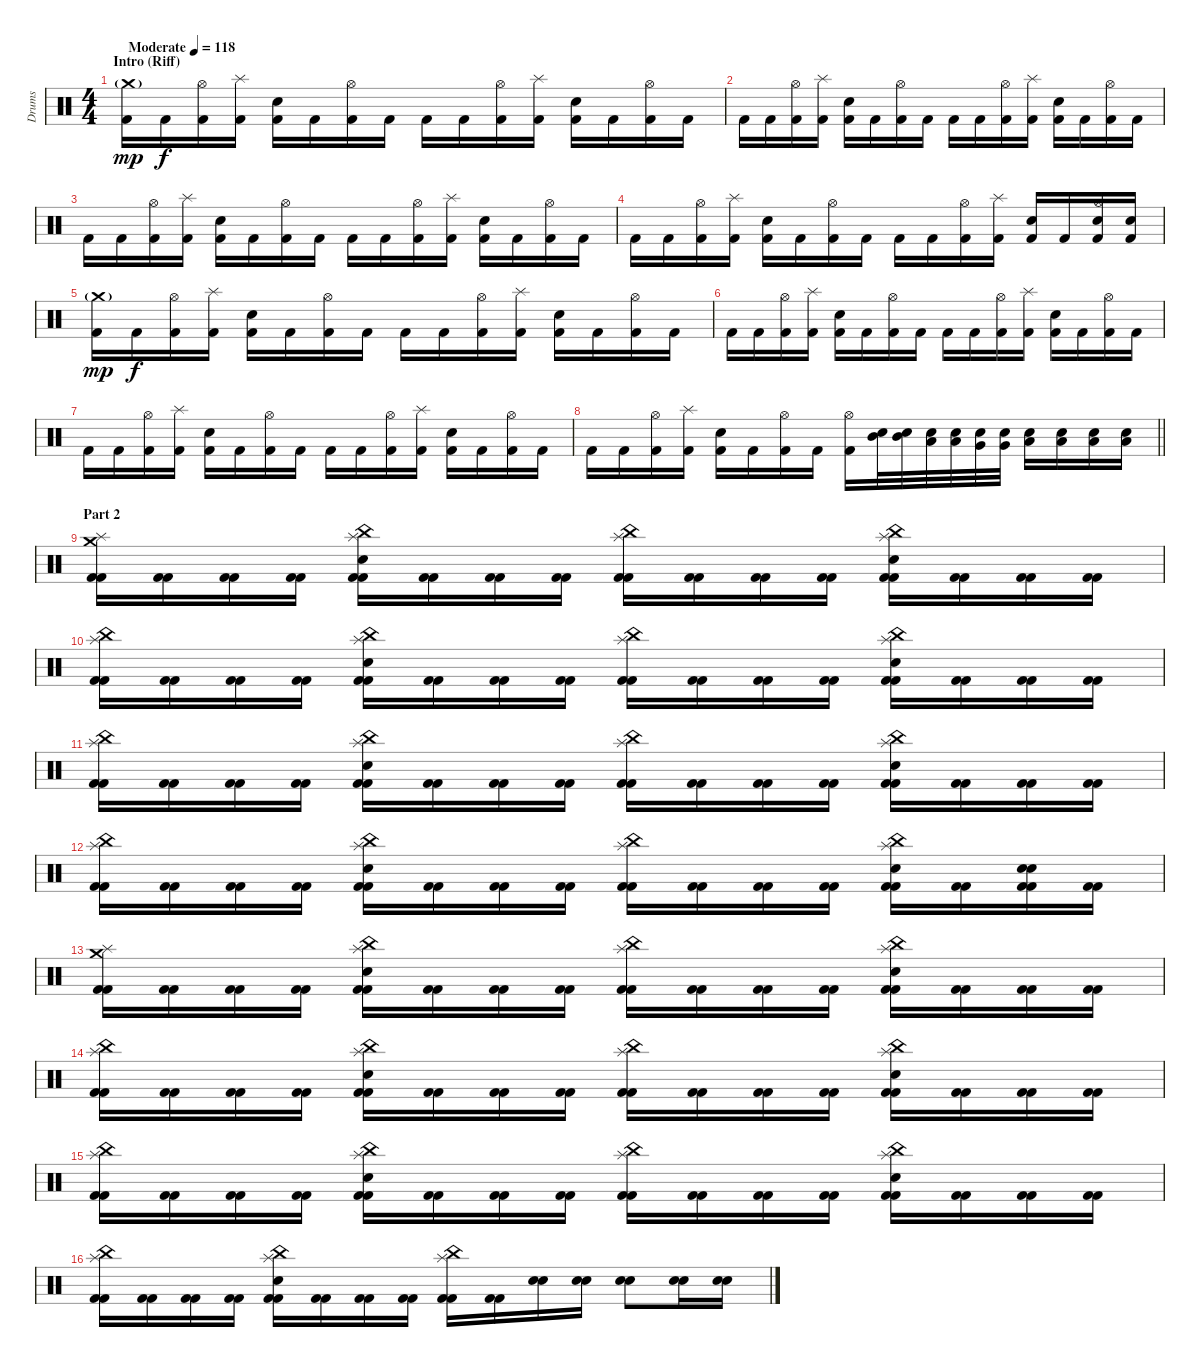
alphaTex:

\track ("Drums" "Drums") {instrument percussion}
\staff {score}
\articulation defaults
\ts (4 4)
\section ("" "Intro (Riff)")
\tempo (118 "Moderate")
\clef neutral
\ks c
("Crash medium (hit)"{g} "Kick (hit) 2").16{dy mp} "Kick (hit) 2".16{dy f} ("Hi-Hat (open)" "Kick (hit) 2").16 ("Splash (hit)" "Kick (hit) 2").16 ("Electric Snare (hit)" "Kick (hit) 2").16 "Kick (hit) 2".16 ("Hi-Hat (open)" "Kick (hit) 2").16 "Kick (hit) 2".16 "Kick (hit) 2".16 "Kick (hit) 2".16 ("Hi-Hat (open)" "Kick (hit) 2").16 ("Splash (hit)" "Kick (hit) 2").16 ("Electric Snare (hit)" "Kick (hit) 2").16 "Kick (hit) 2".16 ("Hi-Hat (open)" "Kick (hit) 2").16 "Kick (hit) 2".16 |
"Kick (hit) 2".16 "Kick (hit) 2".16 ("Hi-Hat (open)" "Kick (hit) 2").16 ("Splash (hit)" "Kick (hit) 2").16 ("Electric Snare (hit)" "Kick (hit) 2").16 "Kick (hit) 2".16 ("Hi-Hat (open)" "Kick (hit) 2").16 "Kick (hit) 2".16 "Kick (hit) 2".16 "Kick (hit) 2".16 ("Hi-Hat (open)" "Kick (hit) 2").16 ("Splash (hit)" "Kick (hit) 2").16 ("Electric Snare (hit)" "Kick (hit) 2").16 "Kick (hit) 2".16 ("Hi-Hat (open)" "Kick (hit) 2").16 "Kick (hit) 2".16 |
"Kick (hit) 2".16 "Kick (hit) 2".16 ("Hi-Hat (open)" "Kick (hit) 2").16 ("Splash (hit)" "Kick (hit) 2").16 ("Electric Snare (hit)" "Kick (hit) 2").16 "Kick (hit) 2".16 ("Hi-Hat (open)" "Kick (hit) 2").16 "Kick (hit) 2".16 "Kick (hit) 2".16 "Kick (hit) 2".16 ("Hi-Hat (open)" "Kick (hit) 2").16 ("Splash (hit)" "Kick (hit) 2").16 ("Electric Snare (hit)" "Kick (hit) 2").16 "Kick (hit) 2".16 ("Hi-Hat (open)" "Kick (hit) 2").16 "Kick (hit) 2".16 |
"Kick (hit) 2".16 "Kick (hit) 2".16 ("Hi-Hat (open)" "Kick (hit) 2").16 ("Splash (hit)" "Kick (hit) 2").16 ("Electric Snare (hit)" "Kick (hit) 2").16 "Kick (hit) 2".16 ("Hi-Hat (open)" "Kick (hit) 2").16 "Kick (hit) 2".16 "Kick (hit) 2".16 "Kick (hit) 2".16 ("Hi-Hat (open)" "Kick (hit) 2").16 ("Splash (hit)" "Kick (hit) 2").16 ("Electric Snare (hit)" "Kick (hit) 2").16 "Kick (hit) 2".16 ("Hi-Hat (open)" "Electric Snare (hit)" "Kick (hit) 2").16 ("Electric Snare (hit)" "Kick (hit) 2").16 |
("Crash medium (hit)"{g} "Kick (hit) 2").16{dy mp} "Kick (hit) 2".16{dy f} ("Hi-Hat (open)" "Kick (hit) 2").16 ("Splash (hit)" "Kick (hit) 2").16 ("Electric Snare (hit)" "Kick (hit) 2").16 "Kick (hit) 2".16 ("Hi-Hat (open)" "Kick (hit) 2").16 "Kick (hit) 2".16 "Kick (hit) 2".16 "Kick (hit) 2".16 ("Hi-Hat (open)" "Kick (hit) 2").16 ("Splash (hit)" "Kick (hit) 2").16 ("Electric Snare (hit)" "Kick (hit) 2").16 "Kick (hit) 2".16 ("Hi-Hat (open)" "Kick (hit) 2").16 "Kick (hit) 2".16 |
"Kick (hit) 2".16 "Kick (hit) 2".16 ("Hi-Hat (open)" "Kick (hit) 2").16 ("Splash (hit)" "Kick (hit) 2").16 ("Electric Snare (hit)" "Kick (hit) 2").16 "Kick (hit) 2".16 ("Hi-Hat (open)" "Kick (hit) 2").16 "Kick (hit) 2".16 "Kick (hit) 2".16 "Kick (hit) 2".16 ("Hi-Hat (open)" "Kick (hit) 2").16 ("Splash (hit)" "Kick (hit) 2").16 ("Electric Snare (hit)" "Kick (hit) 2").16 "Kick (hit) 2".16 ("Hi-Hat (open)" "Kick (hit) 2").16 "Kick (hit) 2".16 |
"Kick (hit) 2".16 "Kick (hit) 2".16 ("Hi-Hat (open)" "Kick (hit) 2").16 ("Splash (hit)" "Kick (hit) 2").16 ("Electric Snare (hit)" "Kick (hit) 2").16 "Kick (hit) 2".16 ("Hi-Hat (open)" "Kick (hit) 2").16 "Kick (hit) 2".16 "Kick (hit) 2".16 "Kick (hit) 2".16 ("Hi-Hat (open)" "Kick (hit) 2").16 ("Splash (hit)" "Kick (hit) 2").16 ("Electric Snare (hit)" "Kick (hit) 2").16 "Kick (hit) 2".16 ("Hi-Hat (open)" "Kick (hit) 2").16 "Kick (hit) 2".16 |
\barLineRight lightlight "Kick (hit) 2".16 "Kick (hit) 2".16
("Hi-Hat (open)" "Kick (hit) 2").16 ("Splash (hit)" "Kick (hit) 2").16 ("Electric Snare (hit)" "Kick (hit) 2").16 "Kick (hit) 2".16 ("Hi-Hat (open)" "Kick (hit) 2").16 "Kick (hit) 2".16 ("Hi-Hat (open)" "Kick (hit) 2").16 ("Mid Tom (hit)" "Electric Snare (hit)").32 ("Mid Tom (hit)" "Electric Snare (hit)").32 ("Low Tom (hit)" "Electric Snare (hit)").32 ("Low Tom (hit)" "Electric Snare (hit)").32 ("Very Low Tom (hit)" "Electric Snare (hit)").32 ("Very Low Tom (hit)" "Electric Snare (hit)").32 ("Low Floor Tom (hit)" "Electric Snare (hit)").16 ("Low Floor Tom (hit)" "Electric Snare (hit)").16 ("Low Floor Tom (hit)" "Electric Snare (hit)").16 ("Low Floor Tom (hit)" "Electric Snare (hit)").16 |
\section ("" "Part 2")
("Crash medium (hit)" "Splash (hit)" "Kick (hit) 2" "Kick (hit) 2").16 ("Kick (hit) 2" "Kick (hit) 2").16 ("Kick (hit) 2" "Kick (hit) 2").16 ("Kick (hit) 2" "Kick (hit) 2").16 ("China (hit)" "Splash (hit)" "Electric Snare (hit)" "Kick (hit) 2" "Kick (hit) 2").16 ("Kick (hit) 2" "Kick (hit) 2").16 ("Kick (hit) 2" "Kick (hit) 2").16 ("Kick (hit) 2" "Kick (hit) 2").16 ("China (hit)" "Splash (hit)" "Kick (hit) 2" "Kick (hit) 2").16 ("Kick (hit) 2" "Kick (hit) 2").16 ("Kick (hit) 2" "Kick (hit) 2").16 ("Kick (hit) 2" "Kick (hit) 2").16 ("China (hit)" "Splash (hit)" "Electric Snare (hit)" "Kick (hit) 2" "Kick (hit) 2").16 ("Kick (hit) 2" "Kick (hit) 2").16 ("Kick (hit) 2" "Kick (hit) 2").16 ("Kick (hit) 2" "Kick (hit) 2").16 |
("China (hit)" "Splash (hit)" "Kick (hit) 2" "Kick (hit) 2").16 ("Kick (hit) 2" "Kick (hit) 2").16 ("Kick (hit) 2" "Kick (hit) 2").16 ("Kick (hit) 2" "Kick (hit) 2").16 ("China (hit)" "Splash (hit)" "Electric Snare (hit)" "Kick (hit) 2" "Kick (hit) 2").16 ("Kick (hit) 2" "Kick (hit) 2").16 ("Kick (hit) 2" "Kick (hit) 2").16 ("Kick (hit) 2" "Kick (hit) 2").16 ("China (hit)" "Splash (hit)" "Kick (hit) 2" "Kick (hit) 2").16 ("Kick (hit) 2" "Kick (hit) 2").16 ("Kick (hit) 2" "Kick (hit) 2").16 ("Kick (hit) 2" "Kick (hit) 2").16 ("China (hit)" "Splash (hit)" "Electric Snare (hit)" "Kick (hit) 2" "Kick (hit) 2").16 ("Kick (hit) 2" "Kick (hit) 2").16 ("Kick (hit) 2" "Kick (hit) 2").16 ("Kick (hit) 2" "Kick (hit) 2").16 |
("China (hit)" "Splash (hit)" "Kick (hit) 2" "Kick (hit) 2").16 ("Kick (hit) 2" "Kick (hit) 2").16 ("Kick (hit) 2" "Kick (hit) 2").16 ("Kick (hit) 2" "Kick (hit) 2").16 ("China (hit)" "Splash (hit)" "Electric Snare (hit)" "Kick (hit) 2" "Kick (hit) 2").16 ("Kick (hit) 2" "Kick (hit) 2").16 ("Kick (hit) 2" "Kick (hit) 2").16 ("Kick (hit) 2" "Kick (hit) 2").16 ("China (hit)" "Splash (hit)" "Kick (hit) 2" "Kick (hit) 2").16 ("Kick (hit) 2" "Kick (hit) 2").16 ("Kick (hit) 2" "Kick (hit) 2").16 ("Kick (hit) 2" "Kick (hit) 2").16 ("China (hit)" "Splash (hit)" "Electric Snare (hit)" "Kick (hit) 2" "Kick (hit) 2").16 ("Kick (hit) 2" "Kick (hit) 2").16 ("Kick (hit) 2" "Kick (hit) 2").16 ("Kick (hit) 2" "Kick (hit) 2").16 |
("China (hit)" "Splash (hit)" "Kick (hit) 2" "Kick (hit) 2").16 ("Kick (hit) 2" "Kick (hit) 2").16 ("Kick (hit) 2" "Kick (hit) 2").16 ("Kick (hit) 2" "Kick (hit) 2").16 ("China (hit)" "Splash (hit)" "Electric Snare (hit)" "Kick (hit) 2" "Kick (hit) 2").16 ("Kick (hit) 2" "Kick (hit) 2").16 ("Kick (hit) 2" "Kick (hit) 2").16 ("Kick (hit) 2" "Kick (hit) 2").16 ("China (hit)" "Splash (hit)" "Kick (hit) 2" "Kick (hit) 2").16 ("Kick (hit) 2" "Kick (hit) 2").16 ("Kick (hit) 2" "Kick (hit) 2").16 ("Kick (hit) 2" "Kick (hit) 2").16 ("China (hit)" "Splash (hit)" "Electric Snare (hit)" "Kick (hit) 2" "Kick (hit) 2").16 ("Kick (hit) 2" "Kick (hit) 2").16 ("Electric Snare (hit)" "Electric Snare (hit)" "Kick (hit) 2" "Kick (hit) 2").16 ("Kick (hit) 2" "Kick (hit) 2").16 |
("Crash medium (hit)" "Splash (hit)" "Kick (hit) 2" "Kick (hit) 2").16 ("Kick (hit) 2" "Kick (hit) 2").16 ("Kick (hit) 2" "Kick (hit) 2").16 ("Kick (hit) 2" "Kick (hit) 2").16 ("China (hit)" "Splash (hit)" "Electric Snare (hit)" "Kick (hit) 2" "Kick (hit) 2").16 ("Kick (hit) 2" "Kick (hit) 2").16 ("Kick (hit) 2" "Kick (hit) 2").16 ("Kick (hit) 2" "Kick (hit) 2").16 ("China (hit)" "Splash (hit)" "Kick (hit) 2" "Kick (hit) 2").16 ("Kick (hit) 2" "Kick (hit) 2").16 ("Kick (hit) 2" "Kick (hit) 2").16 ("Kick (hit) 2" "Kick (hit) 2").16 ("China (hit)" "Splash (hit)" "Electric Snare (hit)" "Kick (hit) 2" "Kick (hit) 2").16 ("Kick (hit) 2" "Kick (hit) 2").16 ("Kick (hit) 2" "Kick (hit) 2").16 ("Kick (hit) 2" "Kick (hit) 2").16 |
("China (hit)" "Splash (hit)" "Kick (hit) 2" "Kick (hit) 2").16 ("Kick (hit) 2" "Kick (hit) 2").16 ("Kick (hit) 2" "Kick (hit) 2").16 ("Kick (hit) 2" "Kick (hit) 2").16 ("China (hit)" "Splash (hit)" "Electric Snare (hit)" "Kick (hit) 2" "Kick (hit) 2").16 ("Kick (hit) 2" "Kick (hit) 2").16 ("Kick (hit) 2" "Kick (hit) 2").16 ("Kick (hit) 2" "Kick (hit) 2").16 ("China (hit)" "Splash (hit)" "Kick (hit) 2" "Kick (hit) 2").16 ("Kick (hit) 2" "Kick (hit) 2").16 ("Kick (hit) 2" "Kick (hit) 2").16 ("Kick (hit) 2" "Kick (hit) 2").16 ("China (hit)" "Splash (hit)" "Electric Snare (hit)" "Kick (hit) 2" "Kick (hit) 2").16 ("Kick (hit) 2" "Kick (hit) 2").16 ("Kick (hit) 2" "Kick (hit) 2").16 ("Kick (hit) 2" "Kick (hit) 2").16 |
("China (hit)" "Splash (hit)" "Kick (hit) 2" "Kick (hit) 2").16 ("Kick (hit) 2" "Kick (hit) 2").16 ("Kick (hit) 2" "Kick (hit) 2").16 ("Kick (hit) 2" "Kick (hit) 2").16 ("China (hit)" "Splash (hit)" "Electric Snare (hit)" "Kick (hit) 2" "Kick (hit) 2").16 ("Kick (hit) 2" "Kick (hit) 2").16 ("Kick (hit) 2" "Kick (hit) 2").16 ("Kick (hit) 2" "Kick (hit) 2").16 ("China (hit)" "Splash (hit)" "Kick (hit) 2" "Kick (hit) 2").16 ("Kick (hit) 2" "Kick (hit) 2").16 ("Kick (hit) 2" "Kick (hit) 2").16 ("Kick (hit) 2" "Kick (hit) 2").16 ("China (hit)" "Splash (hit)" "Electric Snare (hit)" "Kick (hit) 2" "Kick (hit) 2").16 ("Kick (hit) 2" "Kick (hit) 2").16 ("Kick (hit) 2" "Kick (hit) 2").16 ("Kick (hit) 2" "Kick (hit) 2").16 |
("China (hit)" "Splash (hit)" "Kick (hit) 2" "Kick (hit) 2").16 ("Kick (hit) 2" "Kick (hit) 2").16 ("Kick (hit) 2" "Kick (hit) 2").16 ("Kick (hit) 2" "Kick (hit) 2").16 ("China (hit)" "Splash (hit)" "Electric Snare (hit)" "Kick (hit) 2" "Kick (hit) 2").16 ("Kick (hit) 2" "Kick (hit) 2").16 ("Kick (hit) 2" "Kick (hit) 2").16 ("Kick (hit) 2" "Kick (hit) 2").16 ("China (hit)" "Splash (hit)" "Kick (hit) 2" "Kick (hit) 2").16 ("Kick (hit) 2" "Kick (hit) 2").16 ("Electric Snare (hit)" "Electric Snare (hit)").16 ("Electric Snare (hit)" "Electric Snare (hit)").16 ("Electric Snare (hit)" "Electric Snare (hit)").8 ("Electric Snare (hit)" "Electric Snare (hit)").16 ("Electric Snare (hit)" "Electric Snare (hit)").16
